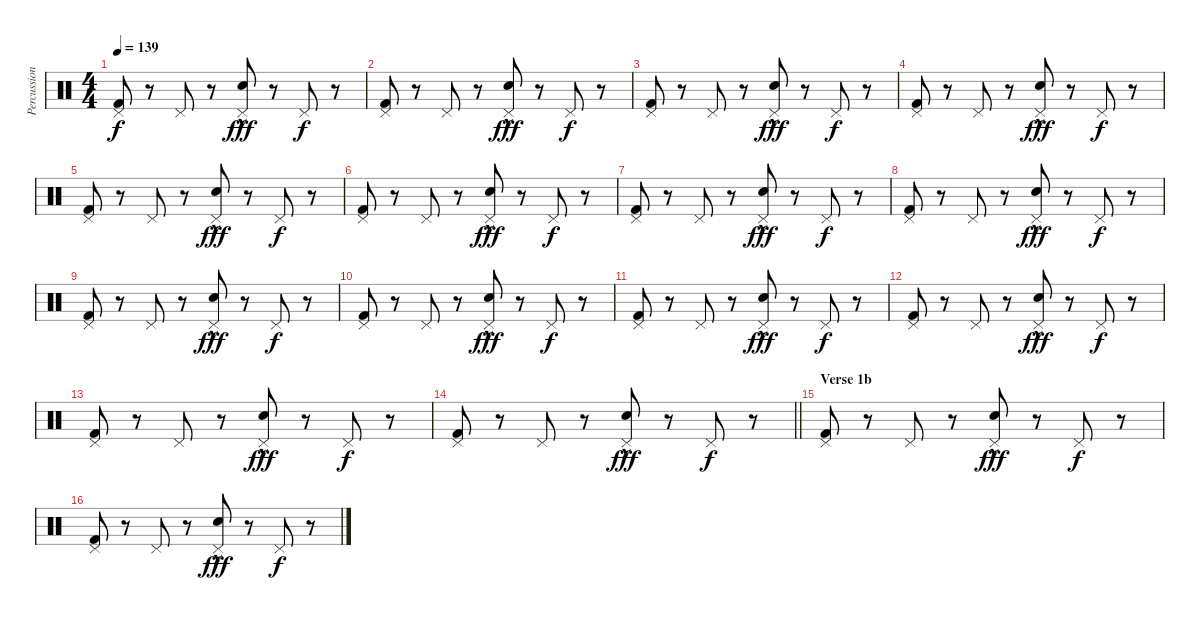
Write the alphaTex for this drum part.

\track ("Percussion" "Percussion") {instrument percussion}
\staff {score}
\articulation defaults
\ts (4 4)
\tempo 139
\clef neutral
\ks c
("Kick (hit) 2" "Pedal Hi-Hat (hit)").8{dy f} r.8 "Pedal Hi-Hat (hit)".8 r.8 ("Electric Snare (hit)"{hac} "Pedal Hi-Hat (hit)").8{dy fff} r.8 "Pedal Hi-Hat (hit)".8{dy f} r.8 |
("Kick (hit) 2" "Pedal Hi-Hat (hit)").8 r.8 "Pedal Hi-Hat (hit)".8 r.8 ("Electric Snare (hit)"{hac} "Pedal Hi-Hat (hit)").8{dy fff} r.8 "Pedal Hi-Hat (hit)".8{dy f} r.8 |
("Kick (hit) 2" "Pedal Hi-Hat (hit)").8 r.8 "Pedal Hi-Hat (hit)".8 r.8 ("Electric Snare (hit)"{hac} "Pedal Hi-Hat (hit)").8{dy fff} r.8 "Pedal Hi-Hat (hit)".8{dy f} r.8 |
("Kick (hit) 2" "Pedal Hi-Hat (hit)").8 r.8 "Pedal Hi-Hat (hit)".8 r.8 ("Electric Snare (hit)"{hac} "Pedal Hi-Hat (hit)").8{dy fff} r.8 "Pedal Hi-Hat (hit)".8{dy f} r.8 |
("Kick (hit) 2" "Pedal Hi-Hat (hit)").8 r.8 "Pedal Hi-Hat (hit)".8 r.8 ("Electric Snare (hit)"{hac} "Pedal Hi-Hat (hit)").8{dy fff} r.8 "Pedal Hi-Hat (hit)".8{dy f} r.8 |
("Kick (hit) 2" "Pedal Hi-Hat (hit)").8 r.8 "Pedal Hi-Hat (hit)".8 r.8 ("Electric Snare (hit)"{hac} "Pedal Hi-Hat (hit)").8{dy fff} r.8 "Pedal Hi-Hat (hit)".8{dy f} r.8 |
("Kick (hit) 2" "Pedal Hi-Hat (hit)").8 r.8 "Pedal Hi-Hat (hit)".8 r.8 ("Electric Snare (hit)"{hac} "Pedal Hi-Hat (hit)").8{dy fff} r.8 "Pedal Hi-Hat (hit)".8{dy f} r.8 |
("Kick (hit) 2" "Pedal Hi-Hat (hit)").8 r.8 "Pedal Hi-Hat (hit)".8 r.8 ("Electric Snare (hit)"{hac} "Pedal Hi-Hat (hit)").8{dy fff} r.8 "Pedal Hi-Hat (hit)".8{dy f} r.8 |
("Kick (hit) 2" "Pedal Hi-Hat (hit)").8 r.8 "Pedal Hi-Hat (hit)".8 r.8 ("Electric Snare (hit)"{hac} "Pedal Hi-Hat (hit)").8{dy fff} r.8 "Pedal Hi-Hat (hit)".8{dy f} r.8 |
("Kick (hit) 2" "Pedal Hi-Hat (hit)").8 r.8 "Pedal Hi-Hat (hit)".8 r.8 ("Electric Snare (hit)"{hac} "Pedal Hi-Hat (hit)").8{dy fff} r.8 "Pedal Hi-Hat (hit)".8{dy f} r.8 |
("Kick (hit) 2" "Pedal Hi-Hat (hit)").8 r.8 "Pedal Hi-Hat (hit)".8 r.8 ("Electric Snare (hit)"{hac} "Pedal Hi-Hat (hit)").8{dy fff} r.8 "Pedal Hi-Hat (hit)".8{dy f} r.8 |
("Kick (hit) 2" "Pedal Hi-Hat (hit)").8 r.8 "Pedal Hi-Hat (hit)".8 r.8 ("Electric Snare (hit)"{hac} "Pedal Hi-Hat (hit)").8{dy fff} r.8 "Pedal Hi-Hat (hit)".8{dy f} r.8 |
("Kick (hit) 2" "Pedal Hi-Hat (hit)").8 r.8 "Pedal Hi-Hat (hit)".8 r.8 ("Electric Snare (hit)"{hac} "Pedal Hi-Hat (hit)").8{dy fff} r.8 "Pedal Hi-Hat (hit)".8{dy f} r.8 |
\barLineRight lightlight
("Kick (hit) 2" "Pedal Hi-Hat (hit)").8 r.8 "Pedal Hi-Hat (hit)".8 r.8 ("Electric Snare (hit)"{hac} "Pedal Hi-Hat (hit)").8{dy fff} r.8 "Pedal Hi-Hat (hit)".8{dy f} r.8 |
\section ("" "Verse 1b")
("Kick (hit) 2" "Pedal Hi-Hat (hit)").8 r.8 "Pedal Hi-Hat (hit)".8 r.8 ("Electric Snare (hit)"{hac} "Pedal Hi-Hat (hit)").8{dy fff} r.8 "Pedal Hi-Hat (hit)".8{dy f} r.8 |
("Kick (hit) 2" "Pedal Hi-Hat (hit)").8 r.8 "Pedal Hi-Hat (hit)".8 r.8 ("Electric Snare (hit)"{hac} "Pedal Hi-Hat (hit)").8{dy fff} r.8 "Pedal Hi-Hat (hit)".8{dy f} r.8
